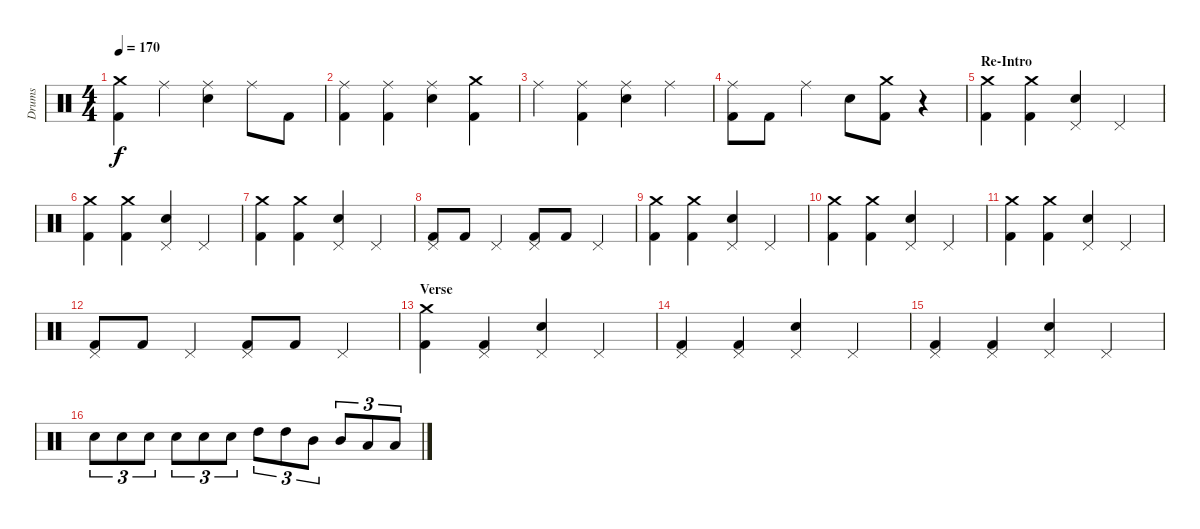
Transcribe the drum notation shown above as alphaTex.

\track ("Drums" "Drums") {instrument percussion}
\staff {score}
\articulation defaults
\ts (4 4)
\tempo 170
\clef neutral
\ks c
("Crash medium (hit)" "Kick (hit) 2").4{dy f} "Ride (middle)".4 ("Ride (middle)" "Electric Snare (hit)").4 "Ride (middle)".8 "Kick (hit) 2".8 |
("Ride (middle)" "Kick (hit) 2").4 ("Ride (middle)" "Kick (hit) 2").4 ("Ride (middle)" "Electric Snare (hit)").4 ("Crash medium (hit)" "Kick (hit) 2").4 |
"Ride (middle)".4 ("Ride (middle)" "Kick (hit) 2").4 ("Ride (middle)" "Electric Snare (hit)").4 "Ride (middle)".4 |
("Ride (middle)" "Kick (hit) 2").8 "Kick (hit) 2".8 "Ride (middle)".4 "Electric Snare (hit)".8 ("Crash medium (hit)" "Kick (hit) 2").8 r.4 |
\section ("" "Re-Intro")
("Crash medium (hit)" "Kick (hit) 2").4 ("Crash medium (hit)" "Kick (hit) 2").4 ("Pedal Hi-Hat (hit)" "Electric Snare (hit)").4 "Pedal Hi-Hat (hit)".4 |
("Crash medium (hit)" "Kick (hit) 2").4 ("Crash medium (hit)" "Kick (hit) 2").4 ("Pedal Hi-Hat (hit)" "Electric Snare (hit)").4 "Pedal Hi-Hat (hit)".4 |
("Crash medium (hit)" "Kick (hit) 2").4 ("Crash medium (hit)" "Kick (hit) 2").4 ("Pedal Hi-Hat (hit)" "Electric Snare (hit)").4 "Pedal Hi-Hat (hit)".4 |
("Pedal Hi-Hat (hit)" "Kick (hit) 2").8 "Kick (hit) 2".8 "Pedal Hi-Hat (hit)".4 ("Pedal Hi-Hat (hit)" "Kick (hit) 2").8 "Kick (hit) 2".8 "Pedal Hi-Hat (hit)".4 |
("Crash medium (hit)" "Kick (hit) 2").4 ("Crash medium (hit)" "Kick (hit) 2").4 ("Pedal Hi-Hat (hit)" "Electric Snare (hit)").4 "Pedal Hi-Hat (hit)".4 |
("Crash medium (hit)" "Kick (hit) 2").4 ("Crash medium (hit)" "Kick (hit) 2").4 ("Pedal Hi-Hat (hit)" "Electric Snare (hit)").4 "Pedal Hi-Hat (hit)".4 |
("Crash medium (hit)" "Kick (hit) 2").4 ("Crash medium (hit)" "Kick (hit) 2").4 ("Pedal Hi-Hat (hit)" "Electric Snare (hit)").4 "Pedal Hi-Hat (hit)".4 |
("Pedal Hi-Hat (hit)" "Kick (hit) 2").8 "Kick (hit) 2".8 "Pedal Hi-Hat (hit)".4 ("Pedal Hi-Hat (hit)" "Kick (hit) 2").8 "Kick (hit) 2".8 "Pedal Hi-Hat (hit)".4 |
\section ("" "Verse")
("Crash medium (hit)" "Kick (hit) 2").4 ("Pedal Hi-Hat (hit)" "Kick (hit) 2").4 ("Pedal Hi-Hat (hit)" "Electric Snare (hit)").4 "Pedal Hi-Hat (hit)".4 |
("Pedal Hi-Hat (hit)" "Kick (hit) 2").4 ("Pedal Hi-Hat (hit)" "Kick (hit) 2").4 ("Pedal Hi-Hat (hit)" "Electric Snare (hit)").4 "Pedal Hi-Hat (hit)".4 |
("Pedal Hi-Hat (hit)" "Kick (hit) 2").4 ("Pedal Hi-Hat (hit)" "Kick (hit) 2").4 ("Pedal Hi-Hat (hit)" "Electric Snare (hit)").4 "Pedal Hi-Hat (hit)".4 |
"Electric Snare (hit)".8{tu (3 2)} "Electric Snare (hit)".8{tu (3 2)} "Electric Snare (hit)".8{tu (3 2)} "Electric Snare (hit)".8{tu (3 2)} "Electric Snare (hit)".8{tu (3 2)} "Electric Snare (hit)".8{tu (3 2)} "High Tom (hit)".8{tu (3 2)} "High Tom (hit)".8{tu (3 2)} "Mid Tom (hit)".8{tu (3 2)} "Mid Tom (hit)".8{tu (3 2)} "Low Tom (hit)".8{tu (3 2)} "Low Tom (hit)".8{tu (3 2)}
